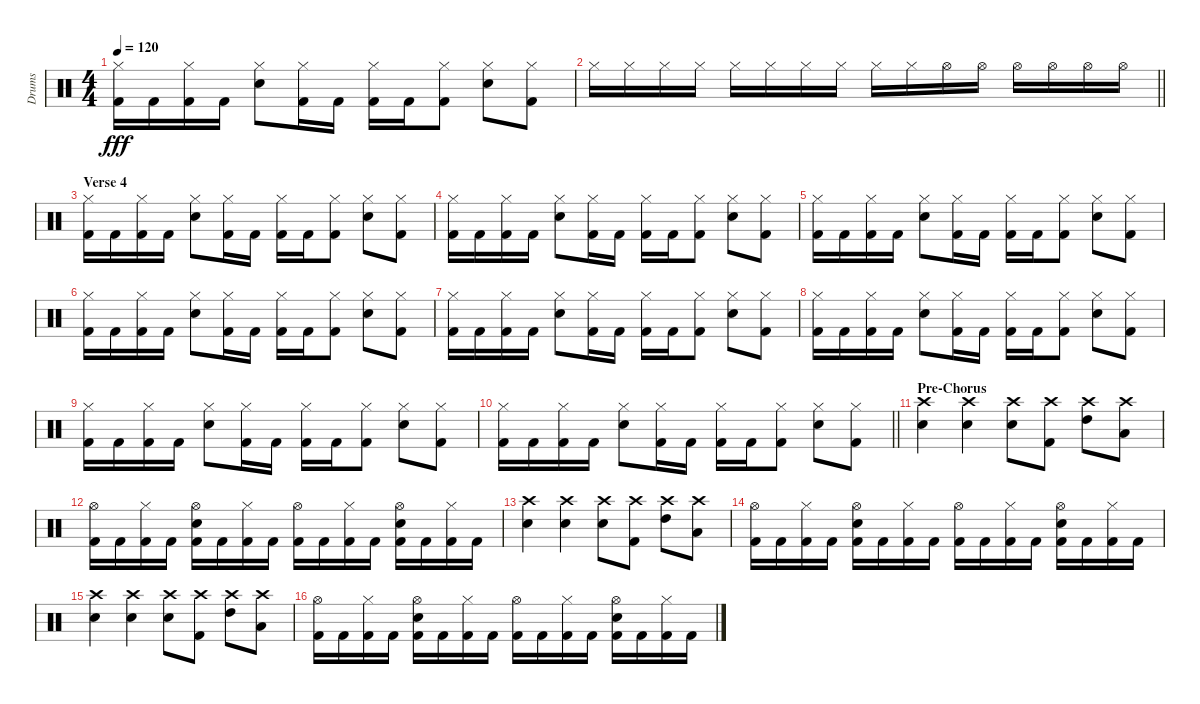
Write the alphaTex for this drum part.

\track ("Drums" "Drums") {instrument percussion}
\staff {score}
\articulation defaults
\ts (4 4)
\tempo 120
\clef neutral
\ks c
("Hi-Hat (closed)" "Kick (hit) 2").16{dy fff} "Kick (hit) 2".16 ("Hi-Hat (closed)" "Kick (hit) 2").16 "Kick (hit) 2".16 ("Hi-Hat (closed)" "Electric Snare (hit)").8 ("Hi-Hat (closed)" "Kick (hit) 2").16 "Kick (hit) 2".16 ("Hi-Hat (closed)" "Kick (hit) 2").16 "Kick (hit) 2".16 ("Hi-Hat (closed)" "Kick (hit) 2").8 ("Hi-Hat (closed)" "Electric Snare (hit)").8 ("Hi-Hat (closed)" "Kick (hit) 2").8 |
\barLineRight lightlight "Hi-Hat (closed)".16 "Hi-Hat (closed)".16 "Hi-Hat (closed)".16 "Hi-Hat (closed)".16 "Hi-Hat (closed)".16 "Hi-Hat (closed)".16 "Hi-Hat (closed)".16 "Hi-Hat (closed)".16 "Hi-Hat (closed)".16 "Hi-Hat (closed)".16 "Hi-Hat (open)".16 "Hi-Hat (open)".16 "Hi-Hat (open)".16 "Hi-Hat (open)".16 "Hi-Hat (open)".16 "Hi-Hat (open)".16
|
\section ("" "Verse 4")
("Hi-Hat (closed)" "Kick (hit) 2").16 "Kick (hit) 2".16 ("Hi-Hat (closed)" "Kick (hit) 2").16 "Kick (hit) 2".16 ("Hi-Hat (closed)" "Electric Snare (hit)").8 ("Hi-Hat (closed)" "Kick (hit) 2").16 "Kick (hit) 2".16 ("Hi-Hat (closed)" "Kick (hit) 2").16 "Kick (hit) 2".16 ("Hi-Hat (closed)" "Kick (hit) 2").8 ("Hi-Hat (closed)" "Electric Snare (hit)").8 ("Hi-Hat (closed)" "Kick (hit) 2").8 |
("Hi-Hat (closed)" "Kick (hit) 2").16 "Kick (hit) 2".16 ("Hi-Hat (closed)" "Kick (hit) 2").16 "Kick (hit) 2".16 ("Hi-Hat (closed)" "Electric Snare (hit)").8 ("Hi-Hat (closed)" "Kick (hit) 2").16 "Kick (hit) 2".16 ("Hi-Hat (closed)" "Kick (hit) 2").16 "Kick (hit) 2".16 ("Hi-Hat (closed)" "Kick (hit) 2").8 ("Hi-Hat (closed)" "Electric Snare (hit)").8 ("Hi-Hat (closed)" "Kick (hit) 2").8 |
("Hi-Hat (closed)" "Kick (hit) 2").16 "Kick (hit) 2".16 ("Hi-Hat (closed)" "Kick (hit) 2").16 "Kick (hit) 2".16 ("Hi-Hat (closed)" "Electric Snare (hit)").8 ("Hi-Hat (closed)" "Kick (hit) 2").16 "Kick (hit) 2".16 ("Hi-Hat (closed)" "Kick (hit) 2").16 "Kick (hit) 2".16 ("Hi-Hat (closed)" "Kick (hit) 2").8 ("Hi-Hat (closed)" "Electric Snare (hit)").8 ("Hi-Hat (closed)" "Kick (hit) 2").8 |
("Hi-Hat (closed)" "Kick (hit) 2").16 "Kick (hit) 2".16 ("Hi-Hat (closed)" "Kick (hit) 2").16 "Kick (hit) 2".16 ("Hi-Hat (closed)" "Electric Snare (hit)").8 ("Hi-Hat (closed)" "Kick (hit) 2").16 "Kick (hit) 2".16 ("Hi-Hat (closed)" "Kick (hit) 2").16 "Kick (hit) 2".16 ("Hi-Hat (closed)" "Kick (hit) 2").8 ("Hi-Hat (closed)" "Electric Snare (hit)").8 ("Hi-Hat (closed)" "Kick (hit) 2").8 |
("Hi-Hat (closed)" "Kick (hit) 2").16 "Kick (hit) 2".16 ("Hi-Hat (closed)" "Kick (hit) 2").16 "Kick (hit) 2".16 ("Hi-Hat (closed)" "Electric Snare (hit)").8 ("Hi-Hat (closed)" "Kick (hit) 2").16 "Kick (hit) 2".16 ("Hi-Hat (closed)" "Kick (hit) 2").16 "Kick (hit) 2".16 ("Hi-Hat (closed)" "Kick (hit) 2").8 ("Hi-Hat (closed)" "Electric Snare (hit)").8 ("Hi-Hat (closed)" "Kick (hit) 2").8 |
("Hi-Hat (closed)" "Kick (hit) 2").16 "Kick (hit) 2".16 ("Hi-Hat (closed)" "Kick (hit) 2").16 "Kick (hit) 2".16 ("Hi-Hat (closed)" "Electric Snare (hit)").8 ("Hi-Hat (closed)" "Kick (hit) 2").16 "Kick (hit) 2".16 ("Hi-Hat (closed)" "Kick (hit) 2").16 "Kick (hit) 2".16 ("Hi-Hat (closed)" "Kick (hit) 2").8 ("Hi-Hat (closed)" "Electric Snare (hit)").8 ("Hi-Hat (closed)" "Kick (hit) 2").8 |
("Hi-Hat (closed)" "Kick (hit) 2").16 "Kick (hit) 2".16 ("Hi-Hat (closed)" "Kick (hit) 2").16 "Kick (hit) 2".16 ("Hi-Hat (closed)" "Electric Snare (hit)").8 ("Hi-Hat (closed)" "Kick (hit) 2").16 "Kick (hit) 2".16 ("Hi-Hat (closed)" "Kick (hit) 2").16 "Kick (hit) 2".16 ("Hi-Hat (closed)" "Kick (hit) 2").8 ("Hi-Hat (closed)" "Electric Snare (hit)").8 ("Hi-Hat (closed)" "Kick (hit) 2").8 |
\barLineRight lightlight
("Hi-Hat (closed)" "Kick (hit) 2").16 "Kick (hit) 2".16 ("Hi-Hat (closed)" "Kick (hit) 2").16 "Kick (hit) 2".16 ("Hi-Hat (closed)" "Electric Snare (hit)").8 ("Hi-Hat (closed)" "Kick (hit) 2").16 "Kick (hit) 2".16 ("Hi-Hat (closed)" "Kick (hit) 2").16 "Kick (hit) 2".16 ("Hi-Hat (closed)" "Kick (hit) 2").8 ("Hi-Hat (closed)" "Electric Snare (hit)").8 ("Hi-Hat (closed)" "Kick (hit) 2").8 |
\section ("" "Pre-Chorus")
("Crash high (hit)" "Electric Snare (hit)").4 ("Crash high (hit)" "Electric Snare (hit)").4 ("Crash high (hit)" "Electric Snare (hit)").8 ("Crash high (hit)" "Kick (hit) 2").8 ("Crash high (hit)" "High Tom (hit)").8 ("Crash high (hit)" "Low Tom (hit)").8 |
("Hi-Hat (open)" "Kick (hit) 2").16 "Kick (hit) 2".16 ("Hi-Hat (closed)" "Kick (hit) 2").16 "Kick (hit) 2".16 ("Hi-Hat (open)" "Electric Snare (hit)" "Kick (hit) 2").16 "Kick (hit) 2".16 ("Hi-Hat (closed)" "Kick (hit) 2").16 "Kick (hit) 2".16 ("Hi-Hat (open)" "Kick (hit) 2").16 "Kick (hit) 2".16 ("Hi-Hat (closed)" "Kick (hit) 2").16 "Kick (hit) 2".16 ("Hi-Hat (open)" "Electric Snare (hit)" "Kick (hit) 2").16 "Kick (hit) 2".16 ("Hi-Hat (closed)" "Kick (hit) 2").16 "Kick (hit) 2".16 |
("Crash high (hit)" "Electric Snare (hit)").4 ("Crash high (hit)" "Electric Snare (hit)").4 ("Crash high (hit)" "Electric Snare (hit)").8 ("Crash high (hit)" "Kick (hit) 2").8 ("Crash high (hit)" "High Tom (hit)").8 ("Crash high (hit)" "Low Tom (hit)").8 |
("Hi-Hat (open)" "Kick (hit) 2").16 "Kick (hit) 2".16 ("Hi-Hat (closed)" "Kick (hit) 2").16 "Kick (hit) 2".16 ("Hi-Hat (open)" "Electric Snare (hit)" "Kick (hit) 2").16 "Kick (hit) 2".16 ("Hi-Hat (closed)" "Kick (hit) 2").16 "Kick (hit) 2".16 ("Hi-Hat (open)" "Kick (hit) 2").16 "Kick (hit) 2".16 ("Hi-Hat (closed)" "Kick (hit) 2").16 "Kick (hit) 2".16 ("Hi-Hat (open)" "Electric Snare (hit)" "Kick (hit) 2").16 "Kick (hit) 2".16 ("Hi-Hat (closed)" "Kick (hit) 2").16 "Kick (hit) 2".16 |
("Crash high (hit)" "Electric Snare (hit)").4 ("Crash high (hit)" "Electric Snare (hit)").4 ("Crash high (hit)" "Electric Snare (hit)").8 ("Crash high (hit)" "Kick (hit) 2").8 ("Crash high (hit)" "High Tom (hit)").8 ("Crash high (hit)" "Low Tom (hit)").8 |
("Hi-Hat (open)" "Kick (hit) 2").16 "Kick (hit) 2".16 ("Hi-Hat (closed)" "Kick (hit) 2").16 "Kick (hit) 2".16 ("Hi-Hat (open)" "Electric Snare (hit)" "Kick (hit) 2").16 "Kick (hit) 2".16 ("Hi-Hat (closed)" "Kick (hit) 2").16 "Kick (hit) 2".16 ("Hi-Hat (open)" "Kick (hit) 2").16 "Kick (hit) 2".16 ("Hi-Hat (closed)" "Kick (hit) 2").16 "Kick (hit) 2".16 ("Hi-Hat (open)" "Electric Snare (hit)" "Kick (hit) 2").16 "Kick (hit) 2".16 ("Hi-Hat (closed)" "Kick (hit) 2").16 "Kick (hit) 2".16
